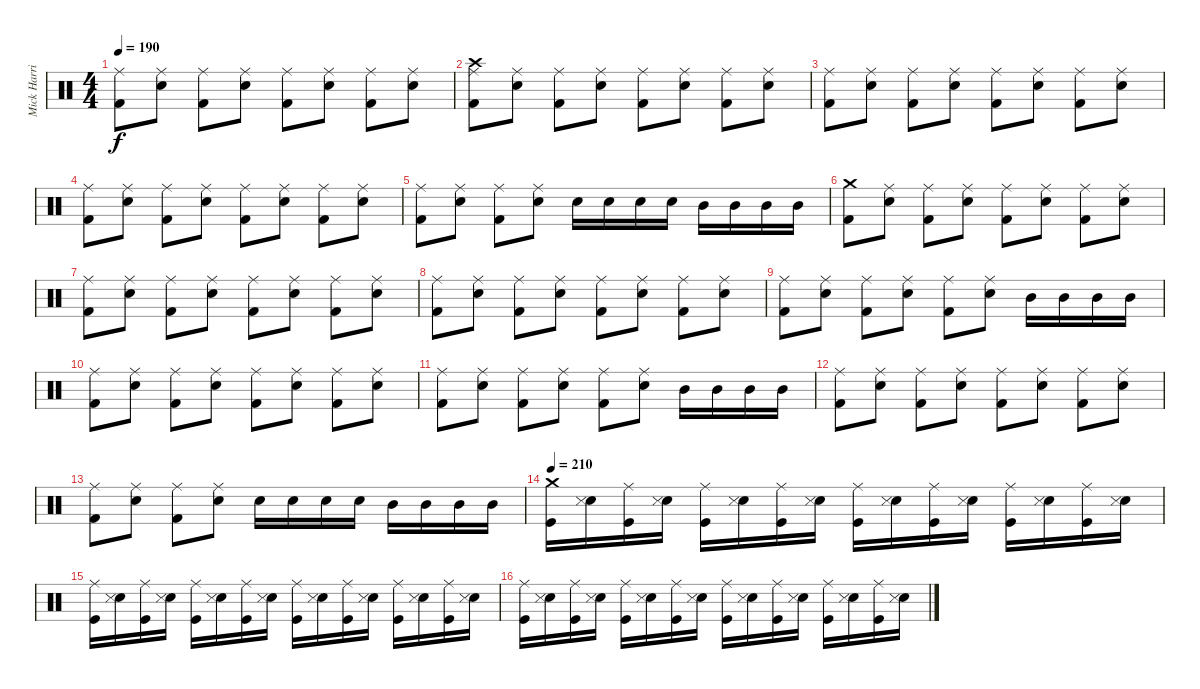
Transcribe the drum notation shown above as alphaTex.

\track ("Mick Harris (Drums)" "Mick Harri") {instrument percussion}
\staff {score}
\articulation defaults
\ts (4 4)
\tempo 190
\clef neutral
\ks c
("Kick (hit) 2" "Ride (middle)").8{dy f} ("Electric Snare (hit)" "Ride (middle)").8 ("Kick (hit) 2" "Ride (middle)").8 ("Electric Snare (hit)" "Ride (middle)").8 ("Kick (hit) 2" "Ride (middle)").8 ("Electric Snare (hit)" "Ride (middle)").8 ("Kick (hit) 2" "Ride (middle)").8 ("Electric Snare (hit)" "Ride (middle)").8 |
("Kick (hit) 2" "Crash high (hit)" "Ride (middle)").8 ("Electric Snare (hit)" "Ride (middle)").8 ("Kick (hit) 2" "Ride (middle)").8 ("Electric Snare (hit)" "Ride (middle)").8 ("Kick (hit) 2" "Ride (middle)").8 ("Electric Snare (hit)" "Ride (middle)").8 ("Kick (hit) 2" "Ride (middle)").8 ("Electric Snare (hit)" "Ride (middle)").8 |
("Kick (hit) 2" "Ride (middle)").8 ("Electric Snare (hit)" "Ride (middle)").8 ("Kick (hit) 2" "Ride (middle)").8 ("Electric Snare (hit)" "Ride (middle)").8 ("Kick (hit) 2" "Ride (middle)").8 ("Electric Snare (hit)" "Ride (middle)").8 ("Kick (hit) 2" "Ride (middle)").8 ("Electric Snare (hit)" "Ride (middle)").8 |
("Kick (hit) 2" "Ride (middle)").8 ("Electric Snare (hit)" "Ride (middle)").8 ("Kick (hit) 2" "Ride (middle)").8 ("Electric Snare (hit)" "Ride (middle)").8 ("Kick (hit) 2" "Ride (middle)").8 ("Electric Snare (hit)" "Ride (middle)").8 ("Kick (hit) 2" "Ride (middle)").8 ("Electric Snare (hit)" "Ride (middle)").8 |
("Kick (hit) 2" "Ride (middle)").8 ("Electric Snare (hit)" "Ride (middle)").8 ("Kick (hit) 2" "Ride (middle)").8 ("Electric Snare (hit)" "Ride (middle)").8 "Electric Snare (hit)".16 "Electric Snare (hit)".16 "Electric Snare (hit)".16 "Electric Snare (hit)".16 "Mid Tom (hit)".16 "Mid Tom (hit)".16 "Mid Tom (hit)".16 "Mid Tom (hit)".16 |
("Kick (hit) 2" "Crash medium (hit)").8 ("Electric Snare (hit)" "Ride (middle)").8 ("Kick (hit) 2" "Ride (middle)").8 ("Electric Snare (hit)" "Ride (middle)").8 ("Kick (hit) 2" "Ride (middle)").8 ("Electric Snare (hit)" "Ride (middle)").8 ("Kick (hit) 2" "Ride (middle)").8 ("Electric Snare (hit)" "Ride (middle)").8 |
("Kick (hit) 2" "Ride (middle)").8 ("Electric Snare (hit)" "Ride (middle)").8 ("Kick (hit) 2" "Ride (middle)").8 ("Electric Snare (hit)" "Ride (middle)").8 ("Kick (hit) 2" "Ride (middle)").8 ("Electric Snare (hit)" "Ride (middle)").8 ("Kick (hit) 2" "Ride (middle)").8 ("Electric Snare (hit)" "Ride (middle)").8 |
("Kick (hit) 2" "Ride (middle)").8 ("Electric Snare (hit)" "Ride (middle)").8 ("Kick (hit) 2" "Ride (middle)").8 ("Electric Snare (hit)" "Ride (middle)").8 ("Kick (hit) 2" "Ride (middle)").8 ("Electric Snare (hit)" "Ride (middle)").8 ("Kick (hit) 2" "Ride (middle)").8 ("Electric Snare (hit)" "Ride (middle)").8 |
("Kick (hit) 2" "Ride (middle)").8 ("Electric Snare (hit)" "Ride (middle)").8 ("Kick (hit) 2" "Ride (middle)").8 ("Electric Snare (hit)" "Ride (middle)").8 ("Kick (hit) 2" "Ride (middle)").8 ("Electric Snare (hit)" "Ride (middle)").8 "Mid Tom (hit)".16 "Mid Tom (hit)".16 "Mid Tom (hit)".16 "Mid Tom (hit)".16 |
("Kick (hit) 2" "Ride (middle)").8 ("Electric Snare (hit)" "Ride (middle)").8 ("Kick (hit) 2" "Ride (middle)").8 ("Electric Snare (hit)" "Ride (middle)").8 ("Kick (hit) 2" "Ride (middle)").8 ("Electric Snare (hit)" "Ride (middle)").8 ("Kick (hit) 2" "Ride (middle)").8 ("Electric Snare (hit)" "Ride (middle)").8 |
("Kick (hit) 2" "Ride (middle)").8 ("Electric Snare (hit)" "Ride (middle)").8 ("Kick (hit) 2" "Ride (middle)").8 ("Electric Snare (hit)" "Ride (middle)").8 ("Kick (hit) 2" "Ride (middle)").8 ("Electric Snare (hit)" "Ride (middle)").8 "Mid Tom (hit)".16 "Mid Tom (hit)".16 "Mid Tom (hit)".16 "Mid Tom (hit)".16 |
("Kick (hit) 2" "Ride (middle)").8 ("Electric Snare (hit)" "Ride (middle)").8 ("Kick (hit) 2" "Ride (middle)").8 ("Electric Snare (hit)" "Ride (middle)").8 ("Kick (hit) 2" "Ride (middle)").8 ("Electric Snare (hit)" "Ride (middle)").8 ("Kick (hit) 2" "Ride (middle)").8 ("Electric Snare (hit)" "Ride (middle)").8 |
("Kick (hit) 2" "Ride (middle)").8 ("Electric Snare (hit)" "Ride (middle)").8 ("Kick (hit) 2" "Ride (middle)").8 ("Electric Snare (hit)" "Ride (middle)").8 "Electric Snare (hit)".16 "Electric Snare (hit)".16 "Electric Snare (hit)".16 "Electric Snare (hit)".16 "Mid Tom (hit)".16 "Mid Tom (hit)".16 "Mid Tom (hit)".16 "Mid Tom (hit)".16 |
\tempo 210
("Kick (hit)" "Crash medium (hit)").16 ("Electric Snare (hit)" "Snare (side stick) 3").16 ("Kick (hit)" "Ride (middle)").16 ("Electric Snare (hit)" "Snare (side stick) 3").16 ("Kick (hit)" "Ride (middle)").16 ("Electric Snare (hit)" "Snare (side stick) 3").16 ("Kick (hit)" "Ride (middle)").16 ("Electric Snare (hit)" "Snare (side stick) 3").16 ("Kick (hit)" "Ride (middle)").16 ("Electric Snare (hit)" "Snare (side stick) 3").16 ("Kick (hit)" "Ride (middle)").16 ("Electric Snare (hit)" "Snare (side stick) 3").16 ("Kick (hit)" "Ride (middle)").16 ("Electric Snare (hit)" "Snare (side stick) 3").16 ("Kick (hit)" "Ride (middle)").16 ("Electric Snare (hit)" "Snare (side stick) 3").16 |
("Kick (hit)" "Ride (middle)").16 ("Electric Snare (hit)" "Snare (side stick) 3").16 ("Kick (hit)" "Ride (middle)").16 ("Electric Snare (hit)" "Snare (side stick) 3").16 ("Kick (hit)" "Ride (middle)").16 ("Electric Snare (hit)" "Snare (side stick) 3").16 ("Kick (hit)" "Ride (middle)").16 ("Electric Snare (hit)" "Snare (side stick) 3").16 ("Kick (hit)" "Ride (middle)").16 ("Electric Snare (hit)" "Snare (side stick) 3").16 ("Kick (hit)" "Ride (middle)").16 ("Electric Snare (hit)" "Snare (side stick) 3").16 ("Kick (hit)" "Ride (middle)").16 ("Electric Snare (hit)" "Snare (side stick) 3").16 ("Kick (hit)" "Ride (middle)").16 ("Electric Snare (hit)" "Snare (side stick) 3").16 |
("Kick (hit)" "Ride (middle)").16 ("Electric Snare (hit)" "Snare (side stick) 3").16 ("Kick (hit)" "Ride (middle)").16 ("Electric Snare (hit)" "Snare (side stick) 3").16 ("Kick (hit)" "Ride (middle)").16 ("Electric Snare (hit)" "Snare (side stick) 3").16 ("Kick (hit)" "Ride (middle)").16 ("Electric Snare (hit)" "Snare (side stick) 3").16 ("Kick (hit)" "Ride (middle)").16 ("Electric Snare (hit)" "Snare (side stick) 3").16 ("Kick (hit)" "Ride (middle)").16 ("Electric Snare (hit)" "Snare (side stick) 3").16 ("Kick (hit)" "Ride (middle)").16 ("Electric Snare (hit)" "Snare (side stick) 3").16 ("Kick (hit)" "Ride (middle)").16 ("Electric Snare (hit)" "Snare (side stick) 3").16
